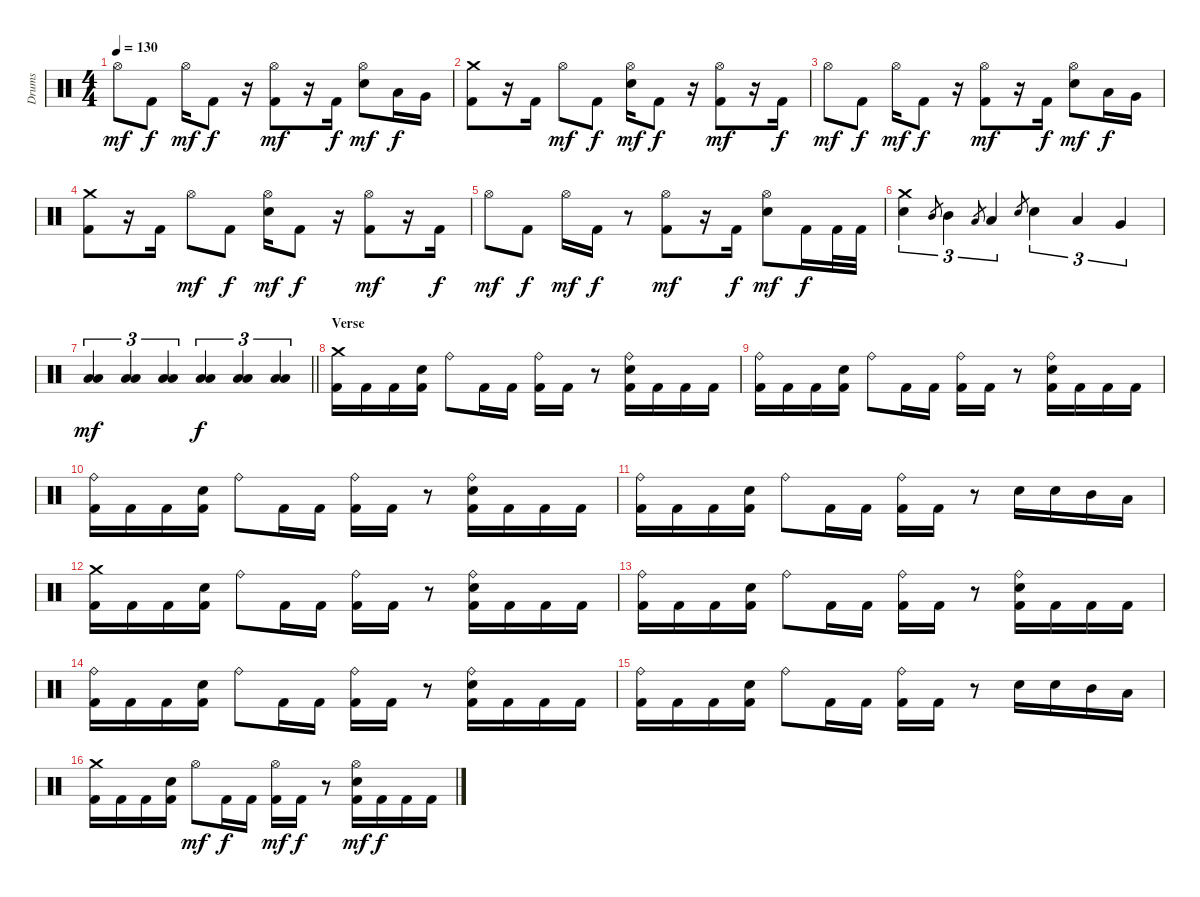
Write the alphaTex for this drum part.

\track ("Drums" "Drums") {instrument percussion}
\staff {score}
\articulation defaults
\ts (4 4)
\tempo 130
\clef neutral
\ks c "Hi-Hat (open)".8{dy mf} "Kick (hit) 2".8{dy f} "Hi-Hat (open)".16{dy mf} "Kick (hit) 2".8{dy f}
r.16 ("Kick (hit) 2" "Hi-Hat (open)").8{dy mf} r.16 "Kick (hit) 2".16{dy f} ("Hi-Hat (open)" "Electric Snare (hit)").8{dy mf} "Low Tom (hit)".16{dy f} "Very Low Tom (hit)".16 |
("Kick (hit) 2" "Crash medium (hit)").8 r.16 "Kick (hit) 2".16 "Hi-Hat (open)".8{dy mf} "Kick (hit) 2".8{dy f} ("Hi-Hat (open)" "Electric Snare (hit)").16{dy mf} "Kick (hit) 2".8{dy f} r.16 ("Kick (hit) 2" "Hi-Hat (open)").8{dy mf} r.16 "Kick (hit) 2".16{dy f} |
"Hi-Hat (open)".8{dy mf} "Kick (hit) 2".8{dy f} "Hi-Hat (open)".16{dy mf} "Kick (hit) 2".8{dy f} r.16 ("Kick (hit) 2" "Hi-Hat (open)").8{dy mf} r.16 "Kick (hit) 2".16{dy f} ("Hi-Hat (open)" "Electric Snare (hit)").8{dy mf} "Low Tom (hit)".16{dy f} "Very Low Tom (hit)".16 |
("Kick (hit) 2" "Crash medium (hit)").8 r.16 "Kick (hit) 2".16 "Hi-Hat (open)".8{dy mf} "Kick (hit) 2".8{dy f} ("Hi-Hat (open)" "Electric Snare (hit)").16{dy mf} "Kick (hit) 2".8{dy f} r.16 ("Kick (hit) 2" "Hi-Hat (open)").8{dy mf} r.16 "Kick (hit) 2".16{dy f} |
"Hi-Hat (open)".8{dy mf} "Kick (hit) 2".8{dy f} "Hi-Hat (open)".16{dy mf} "Kick (hit) 2".16{dy f} r.8 ("Kick (hit) 2" "Hi-Hat (open)").8{dy mf} r.16 "Kick (hit) 2".16{dy f} ("Hi-Hat (open)" "Electric Snare (hit)").8{dy mf} "Kick (hit) 2".16{dy f} "Kick (hit) 2".32 "Kick (hit) 2".32 |
("Crash medium (hit)" "Electric Snare (hit)").4{tu (3 2)} "Mid Tom (hit)".8{gr} "Mid Tom (hit)".4{tu (3 2)} "Low Tom (hit)".8{gr} "Low Tom (hit)".4{tu (3 2)} "Electric Snare (hit)".8{gr} "Electric Snare (hit)".4{tu (3 2)} "Low Tom (hit)".4{tu (3 2)} "Very Low Tom (hit)".4{tu (3 2)} |
\barLineRight lightlight
("Low Floor Tom (hit)" "Low Tom (hit)").4{tu (3 2) dy mf} ("Low Floor Tom (hit)" "Low Tom (hit)").4{tu (3 2)} ("Low Floor Tom (hit)" "Low Tom (hit)").4{tu (3 2)} ("Low Floor Tom (hit)" "Low Tom (hit)").4{tu (3 2) dy f} ("Low Floor Tom (hit)" "Low Tom (hit)").4{tu (3 2)} ("Low Floor Tom (hit)" "Low Tom (hit)").4{tu (3 2)} |
\section ("" "Verse")
("Kick (hit) 2" "Crash medium (hit)").16 "Kick (hit) 2".16 "Kick (hit) 2".16 ("Kick (hit) 2" "Electric Snare (hit)").16 "Ride (bell)".8 "Kick (hit) 2".16 "Kick (hit) 2".16 ("Kick (hit) 2" "Ride (bell)").16 "Kick (hit) 2".16 r.8 ("Kick (hit) 2" "Ride (bell)" "Electric Snare (hit)").16 "Kick (hit) 2".16 "Kick (hit) 2".16 "Kick (hit) 2".16 |
("Kick (hit) 2" "Ride (bell)").16 "Kick (hit) 2".16 "Kick (hit) 2".16 ("Kick (hit) 2" "Electric Snare (hit)").16 "Ride (bell)".8 "Kick (hit) 2".16 "Kick (hit) 2".16 ("Kick (hit) 2" "Ride (bell)").16 "Kick (hit) 2".16 r.8 ("Kick (hit) 2" "Ride (bell)" "Electric Snare (hit)").16 "Kick (hit) 2".16 "Kick (hit) 2".16 "Kick (hit) 2".16 |
("Kick (hit) 2" "Ride (bell)").16 "Kick (hit) 2".16 "Kick (hit) 2".16 ("Kick (hit) 2" "Electric Snare (hit)").16 "Ride (bell)".8 "Kick (hit) 2".16 "Kick (hit) 2".16 ("Kick (hit) 2" "Ride (bell)").16 "Kick (hit) 2".16 r.8 ("Kick (hit) 2" "Ride (bell)" "Electric Snare (hit)").16 "Kick (hit) 2".16 "Kick (hit) 2".16 "Kick (hit) 2".16 |
("Kick (hit) 2" "Ride (bell)").16 "Kick (hit) 2".16 "Kick (hit) 2".16 ("Kick (hit) 2" "Electric Snare (hit)").16 "Ride (bell)".8 "Kick (hit) 2".16 "Kick (hit) 2".16 ("Kick (hit) 2" "Ride (bell)").16 "Kick (hit) 2".16 r.8 "Electric Snare (hit)".16 "Electric Snare (hit)".16 "Mid Tom (hit)".16 "Low Tom (hit)".16 |
("Kick (hit) 2" "Crash medium (hit)").16 "Kick (hit) 2".16 "Kick (hit) 2".16 ("Kick (hit) 2" "Electric Snare (hit)").16 "Ride (bell)".8 "Kick (hit) 2".16 "Kick (hit) 2".16 ("Kick (hit) 2" "Ride (bell)").16 "Kick (hit) 2".16 r.8 ("Kick (hit) 2" "Ride (bell)" "Electric Snare (hit)").16 "Kick (hit) 2".16 "Kick (hit) 2".16 "Kick (hit) 2".16 |
("Kick (hit) 2" "Ride (bell)").16 "Kick (hit) 2".16 "Kick (hit) 2".16 ("Kick (hit) 2" "Electric Snare (hit)").16 "Ride (bell)".8 "Kick (hit) 2".16 "Kick (hit) 2".16 ("Kick (hit) 2" "Ride (bell)").16 "Kick (hit) 2".16 r.8 ("Kick (hit) 2" "Ride (bell)" "Electric Snare (hit)").16 "Kick (hit) 2".16 "Kick (hit) 2".16 "Kick (hit) 2".16 |
("Kick (hit) 2" "Ride (bell)").16 "Kick (hit) 2".16 "Kick (hit) 2".16 ("Kick (hit) 2" "Electric Snare (hit)").16 "Ride (bell)".8 "Kick (hit) 2".16 "Kick (hit) 2".16 ("Kick (hit) 2" "Ride (bell)").16 "Kick (hit) 2".16 r.8 ("Kick (hit) 2" "Ride (bell)" "Electric Snare (hit)").16 "Kick (hit) 2".16 "Kick (hit) 2".16 "Kick (hit) 2".16 |
("Kick (hit) 2" "Ride (bell)").16 "Kick (hit) 2".16 "Kick (hit) 2".16 ("Kick (hit) 2" "Electric Snare (hit)").16 "Ride (bell)".8 "Kick (hit) 2".16 "Kick (hit) 2".16 ("Kick (hit) 2" "Ride (bell)").16 "Kick (hit) 2".16 r.8 "Electric Snare (hit)".16 "Electric Snare (hit)".16 "Mid Tom (hit)".16 "Low Tom (hit)".16 |
("Kick (hit) 2" "Crash medium (hit)").16 "Kick (hit) 2".16 "Kick (hit) 2".16 ("Kick (hit) 2" "Electric Snare (hit)").16 "Hi-Hat (open)".8{dy mf} "Kick (hit) 2".16{dy f} "Kick (hit) 2".16 ("Kick (hit) 2" "Hi-Hat (open)").16{dy mf} "Kick (hit) 2".16{dy f} r.8 ("Kick (hit) 2" "Hi-Hat (open)" "Electric Snare (hit)").16{dy mf} "Kick (hit) 2".16{dy f} "Kick (hit) 2".16 "Kick (hit) 2".16
